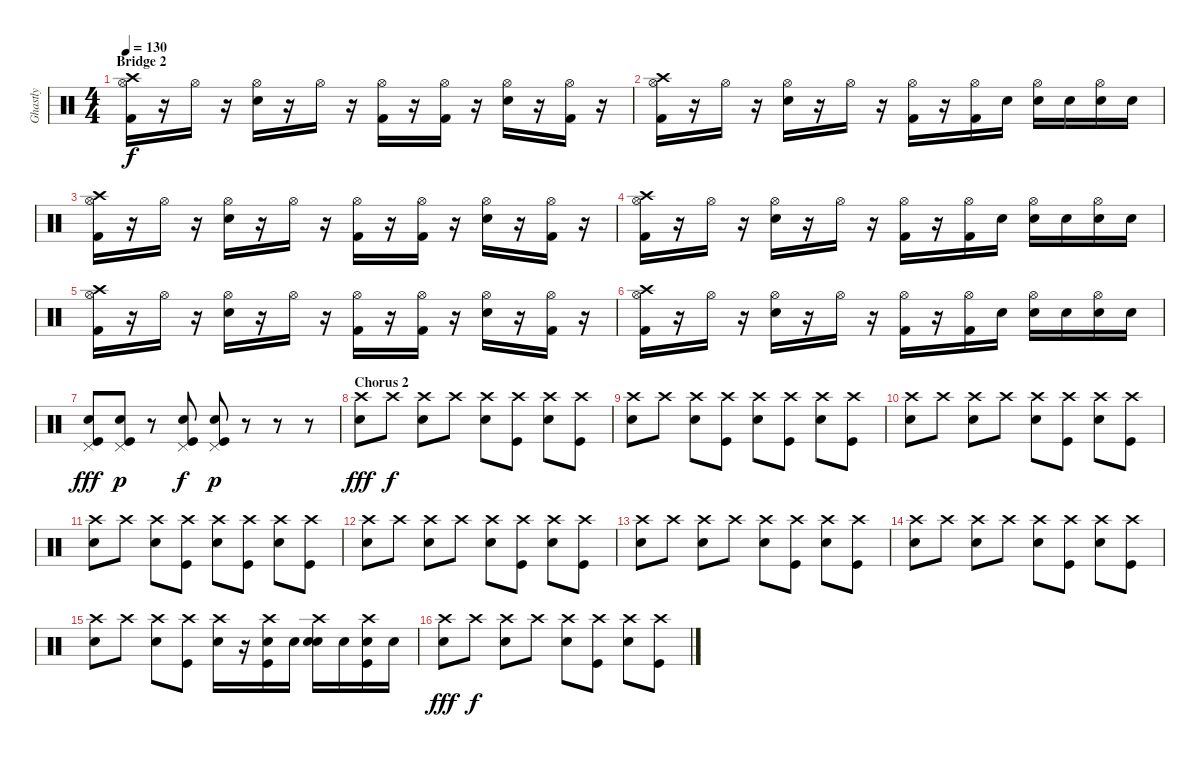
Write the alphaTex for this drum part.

\track ("Ghastly" "Ghastly") {instrument percussion}
\staff {score}
\articulation defaults
\ts (4 4)
\section ("" "Bridge 2")
\tempo 130
\clef neutral
\ks c
("Hi-Hat (open)" "Crash high (hit)" "Kick (hit) 2").16{dy f} r.16 "Hi-Hat (open)".16 r.16 ("Hi-Hat (open)" "Electric Snare (hit)").16 r.16 "Hi-Hat (open)".16 r.16 ("Hi-Hat (open)" "Kick (hit) 2").16 r.16 ("Hi-Hat (open)" "Kick (hit) 2").16 r.16 ("Hi-Hat (open)" "Electric Snare (hit)").16 r.16 ("Hi-Hat (open)" "Kick (hit) 2").16 r.16 |
("Hi-Hat (open)" "Crash high (hit)" "Kick (hit) 2").16 r.16 "Hi-Hat (open)".16 r.16 ("Hi-Hat (open)" "Electric Snare (hit)").16 r.16 "Hi-Hat (open)".16 r.16 ("Hi-Hat (open)" "Kick (hit) 2").16 r.16 ("Hi-Hat (open)" "Kick (hit) 2").16 "Electric Snare (hit)".16 ("Hi-Hat (open)" "Electric Snare (hit)").16 "Electric Snare (hit)".16 ("Hi-Hat (open)" "Electric Snare (hit)").16 "Electric Snare (hit)".16 |
("Hi-Hat (open)" "Crash high (hit)" "Kick (hit) 2").16 r.16 "Hi-Hat (open)".16 r.16 ("Hi-Hat (open)" "Electric Snare (hit)").16 r.16 "Hi-Hat (open)".16 r.16 ("Hi-Hat (open)" "Kick (hit) 2").16 r.16 ("Hi-Hat (open)" "Kick (hit) 2").16 r.16 ("Hi-Hat (open)" "Electric Snare (hit)").16 r.16 ("Hi-Hat (open)" "Kick (hit) 2").16 r.16 |
("Hi-Hat (open)" "Crash high (hit)" "Kick (hit) 2").16 r.16 "Hi-Hat (open)".16 r.16 ("Hi-Hat (open)" "Electric Snare (hit)").16 r.16 "Hi-Hat (open)".16 r.16 ("Hi-Hat (open)" "Kick (hit) 2").16 r.16 ("Hi-Hat (open)" "Kick (hit) 2").16 "Electric Snare (hit)".16 ("Hi-Hat (open)" "Electric Snare (hit)").16 "Electric Snare (hit)".16 ("Hi-Hat (open)" "Electric Snare (hit)").16 "Electric Snare (hit)".16 |
("Hi-Hat (open)" "Crash high (hit)" "Kick (hit) 2").16 r.16 "Hi-Hat (open)".16 r.16 ("Hi-Hat (open)" "Electric Snare (hit)").16 r.16 "Hi-Hat (open)".16 r.16 ("Hi-Hat (open)" "Kick (hit) 2").16 r.16 ("Hi-Hat (open)" "Kick (hit) 2").16 r.16 ("Hi-Hat (open)" "Electric Snare (hit)").16 r.16 ("Hi-Hat (open)" "Kick (hit) 2").16 r.16 |
("Hi-Hat (open)" "Crash high (hit)" "Kick (hit) 2").16 r.16 "Hi-Hat (open)".16 r.16 ("Hi-Hat (open)" "Electric Snare (hit)").16 r.16 "Hi-Hat (open)".16 r.16 ("Hi-Hat (open)" "Kick (hit) 2").16 r.16 ("Hi-Hat (open)" "Kick (hit) 2").16 "Electric Snare (hit)".16 ("Hi-Hat (open)" "Electric Snare (hit)").16 "Electric Snare (hit)".16 ("Hi-Hat (open)" "Electric Snare (hit)").16 "Electric Snare (hit)".16 |
("Pedal Hi-Hat (hit)" "Kick (hit)" "Electric Snare (hit)").8{dy fff} ("Pedal Hi-Hat (hit)" "Kick (hit)" "Electric Snare (hit)").8{dy p} r.8 ("Pedal Hi-Hat (hit)" "Kick (hit)" "Electric Snare (hit)").8{dy f} ("Pedal Hi-Hat (hit)" "Kick (hit)" "Electric Snare (hit)").8{dy p} r.8 r.8 r.8 |
\section ("" "Chorus 2")
("Crash high (hit)" "Electric Snare (hit)").8{dy fff} "Crash high (hit)".8{dy f} ("Crash high (hit)" "Electric Snare (hit)").8 "Crash high (hit)".8 ("Crash high (hit)" "Electric Snare (hit)").8 ("Crash high (hit)" "Kick (hit)").8 ("Crash high (hit)" "Electric Snare (hit)").8 ("Crash high (hit)" "Kick (hit)").8 |
("Crash high (hit)" "Electric Snare (hit)").8 "Crash high (hit)".8 ("Crash high (hit)" "Electric Snare (hit)").8 ("Crash high (hit)" "Kick (hit)").8 ("Crash high (hit)" "Electric Snare (hit)").8 ("Crash high (hit)" "Kick (hit)").8 ("Crash high (hit)" "Electric Snare (hit)").8 ("Crash high (hit)" "Kick (hit)").8 |
("Crash high (hit)" "Electric Snare (hit)").8 "Crash high (hit)".8 ("Crash high (hit)" "Electric Snare (hit)").8 "Crash high (hit)".8 ("Crash high (hit)" "Electric Snare (hit)").8 ("Crash high (hit)" "Kick (hit)").8 ("Crash high (hit)" "Electric Snare (hit)").8 ("Crash high (hit)" "Kick (hit)").8 |
("Crash high (hit)" "Electric Snare (hit)").8 "Crash high (hit)".8 ("Crash high (hit)" "Electric Snare (hit)").8 ("Crash high (hit)" "Kick (hit)").8 ("Crash high (hit)" "Electric Snare (hit)").8 ("Crash high (hit)" "Kick (hit)").8 ("Crash high (hit)" "Electric Snare (hit)").8 ("Crash high (hit)" "Kick (hit)").8 |
("Crash high (hit)" "Electric Snare (hit)").8 "Crash high (hit)".8 ("Crash high (hit)" "Electric Snare (hit)").8 "Crash high (hit)".8 ("Crash high (hit)" "Electric Snare (hit)").8 ("Crash high (hit)" "Kick (hit)").8 ("Crash high (hit)" "Electric Snare (hit)").8 ("Crash high (hit)" "Kick (hit)").8 |
("Crash high (hit)" "Electric Snare (hit)").8 "Crash high (hit)".8 ("Crash high (hit)" "Electric Snare (hit)").8 "Crash high (hit)".8 ("Crash high (hit)" "Electric Snare (hit)").8 ("Crash high (hit)" "Kick (hit)").8 ("Crash high (hit)" "Electric Snare (hit)").8 ("Crash high (hit)" "Kick (hit)").8 |
("Crash high (hit)" "Electric Snare (hit)").8 "Crash high (hit)".8 ("Crash high (hit)" "Electric Snare (hit)").8 "Crash high (hit)".8 ("Crash high (hit)" "Electric Snare (hit)").8 ("Crash high (hit)" "Kick (hit)").8 ("Crash high (hit)" "Electric Snare (hit)").8 ("Crash high (hit)" "Kick (hit)").8 |
("Crash high (hit)" "Electric Snare (hit)").8 "Crash high (hit)".8 ("Crash high (hit)" "Electric Snare (hit)").8 ("Crash high (hit)" "Kick (hit)").8 ("Crash high (hit)" "Electric Snare (hit)").16 r.16 ("Crash high (hit)" "Kick (hit)" "Electric Snare (hit)").16 "Electric Snare (hit)".16 ("Crash high (hit)" "Electric Snare (hit)" "Electric Snare (hit)").16 "Electric Snare (hit)".16 ("Crash high (hit)" "Kick (hit)" "Electric Snare (hit)").16 "Electric Snare (hit)".16 |
("Crash high (hit)" "Electric Snare (hit)").8{dy fff} "Crash high (hit)".8{dy f} ("Crash high (hit)" "Electric Snare (hit)").8 "Crash high (hit)".8 ("Crash high (hit)" "Electric Snare (hit)").8 ("Crash high (hit)" "Kick (hit)").8 ("Crash high (hit)" "Electric Snare (hit)").8 ("Crash high (hit)" "Kick (hit)").8
